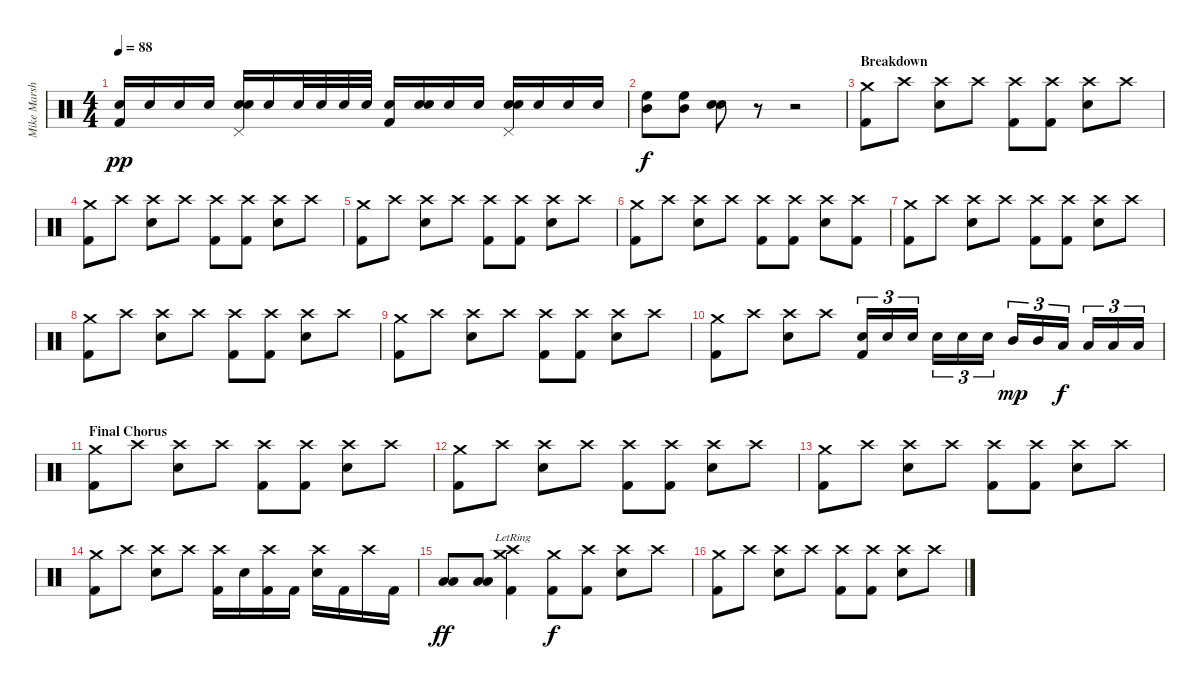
\track ("Mike Marsh" "Mike Marsh") {instrument percussion}
\staff {score}
\articulation defaults
\ts (4 4)
\tempo 88
\clef neutral
\ks c
("Snare (hit) 2" "Kick (hit) 2").16{dy pp} "Snare (hit) 2".16 "Snare (hit) 2".16 "Snare (hit) 2".16 ("Pedal Hi-Hat (hit)" "Snare (hit) 2" "Snare (hit) 2").16 "Snare (hit) 2".16 "Snare (hit) 2".32 "Snare (hit) 2".32 "Snare (hit) 2".32 "Snare (hit) 2".32 ("Snare (hit) 2" "Kick (hit) 2").16 ("Snare (hit) 2" "Snare (hit) 2").16 "Snare (hit) 2".16 "Snare (hit) 2".16 ("Pedal Hi-Hat (hit)" "Snare (hit) 2" "Snare (hit) 2").16 "Snare (hit) 2".16 "Snare (hit) 2".16 "Snare (hit) 2".16 |
("High Floor Tom (hit)" "Mid Tom (hit)").8{dy f} ("High Floor Tom (hit)" "Mid Tom (hit)").8 ("Snare (hit) 2" "Snare (hit) 2").8 r.8 r.2 |
\section ("" "Breakdown")
("Crash medium (hit)" "Kick (hit) 2").8 "Crash high (hit)".8 ("Crash high (hit)" "Snare (hit) 2").8 "Crash high (hit)".8 ("Crash high (hit)" "Kick (hit) 2").8 ("Crash high (hit)" "Kick (hit) 2").8 ("Crash high (hit)" "Snare (hit) 2").8 "Crash high (hit)".8 |
("Crash medium (hit)" "Kick (hit) 2").8 "Crash high (hit)".8 ("Crash high (hit)" "Snare (hit) 2").8 "Crash high (hit)".8 ("Crash high (hit)" "Kick (hit) 2").8 ("Crash high (hit)" "Kick (hit) 2").8 ("Crash high (hit)" "Snare (hit) 2").8 "Crash high (hit)".8 |
("Crash medium (hit)" "Kick (hit) 2").8 "Crash high (hit)".8 ("Crash high (hit)" "Snare (hit) 2").8 "Crash high (hit)".8 ("Crash high (hit)" "Kick (hit) 2").8 ("Crash high (hit)" "Kick (hit) 2").8 ("Crash high (hit)" "Snare (hit) 2").8 "Crash high (hit)".8 |
("Crash medium (hit)" "Kick (hit) 2").8 "Crash high (hit)".8 ("Crash high (hit)" "Snare (hit) 2").8 "Crash high (hit)".8 ("Crash high (hit)" "Kick (hit) 2").8 ("Crash high (hit)" "Kick (hit) 2").8 ("Crash high (hit)" "Snare (hit) 2").8 ("Crash high (hit)" "Kick (hit) 2").8 |
("Crash medium (hit)" "Kick (hit) 2").8 "Crash high (hit)".8 ("Crash high (hit)" "Snare (hit) 2").8 "Crash high (hit)".8 ("Crash high (hit)" "Kick (hit) 2").8 ("Crash high (hit)" "Kick (hit) 2").8 ("Crash high (hit)" "Snare (hit) 2").8 "Crash high (hit)".8 |
("Crash medium (hit)" "Kick (hit) 2").8 "Crash high (hit)".8 ("Crash high (hit)" "Snare (hit) 2").8 "Crash high (hit)".8 ("Crash high (hit)" "Kick (hit) 2").8 ("Crash high (hit)" "Kick (hit) 2").8 ("Crash high (hit)" "Snare (hit) 2").8 "Crash high (hit)".8 |
("Crash medium (hit)" "Kick (hit) 2").8 "Crash high (hit)".8 ("Crash high (hit)" "Snare (hit) 2").8 "Crash high (hit)".8 ("Crash high (hit)" "Kick (hit) 2").8 ("Crash high (hit)" "Kick (hit) 2").8 ("Crash high (hit)" "Snare (hit) 2").8 "Crash high (hit)".8 |
("Crash medium (hit)" "Kick (hit) 2").8 "Crash high (hit)".8 ("Crash high (hit)" "Snare (hit) 2").8 "Crash high (hit)".8 ("Snare (hit) 2" "Kick (hit) 2").16{tu (3 2)} "Snare (hit) 2".16{tu (3 2)} "Snare (hit) 2".16{tu (3 2)} "Snare (hit) 2".16{tu (3 2)} "Snare (hit) 2".16{tu (3 2)} "Snare (hit) 2".16{tu (3 2)} "Mid Tom (hit)".16{tu (3 2) dy mp} "Mid Tom (hit)".16{tu (3 2)} "Low Tom (hit)".16{tu (3 2) dy f} "Low Tom (hit)".16{tu (3 2)} "Low Floor Tom (hit)".16{tu (3 2)} "Low Floor Tom (hit)".16{tu (3 2)} |
\section ("" "Final Chorus")
("Crash medium (hit)" "Kick (hit) 2").8 "Crash high (hit)".8 ("Crash high (hit)" "Snare (hit) 2").8 "Crash high (hit)".8 ("Crash high (hit)" "Kick (hit) 2").8 ("Crash high (hit)" "Kick (hit) 2").8 ("Crash high (hit)" "Snare (hit) 2").8 "Crash high (hit)".8 |
("Crash medium (hit)" "Kick (hit) 2").8 "Crash high (hit)".8 ("Crash high (hit)" "Snare (hit) 2").8 "Crash high (hit)".8 ("Crash high (hit)" "Kick (hit) 2").8 ("Crash high (hit)" "Kick (hit) 2").8 ("Crash high (hit)" "Snare (hit) 2").8 "Crash high (hit)".8 |
("Crash medium (hit)" "Kick (hit) 2").8 "Crash high (hit)".8 ("Crash high (hit)" "Snare (hit) 2").8 "Crash high (hit)".8 ("Crash high (hit)" "Kick (hit) 2").8 ("Crash high (hit)" "Kick (hit) 2").8 ("Crash high (hit)" "Snare (hit) 2").8 "Crash high (hit)".8 |
("Crash medium (hit)" "Kick (hit) 2").8 "Crash high (hit)".8 ("Crash high (hit)" "Snare (hit) 2").8 "Crash high (hit)".8 ("Crash high (hit)" "Kick (hit) 2").16 "Snare (hit) 2".16 ("Crash high (hit)" "Kick (hit) 2").16 "Kick (hit) 2".16 ("Crash high (hit)" "Snare (hit) 2").16 "Kick (hit) 2".16 "Crash high (hit)".16 "Kick (hit) 2".16 |
("Low Tom (hit)" "Low Floor Tom (hit)").8{dy ff} ("Low Tom (hit)" "Low Floor Tom (hit)").8 ("Crash high (hit)"{lr} "Crash medium (hit)"{lr} "Kick (hit) 2").4 ("Crash medium (hit)" "Kick (hit) 2").8{dy f} ("Crash high (hit)" "Kick (hit) 2").8 ("Crash high (hit)" "Snare (hit) 2").8 "Crash high (hit)".8 |
("Crash medium (hit)" "Kick (hit) 2").8 "Crash high (hit)".8 ("Crash high (hit)" "Snare (hit) 2").8 "Crash high (hit)".8 ("Crash high (hit)" "Kick (hit) 2").8 ("Crash high (hit)" "Kick (hit) 2").8 ("Crash high (hit)" "Snare (hit) 2").8 "Crash high (hit)".8
